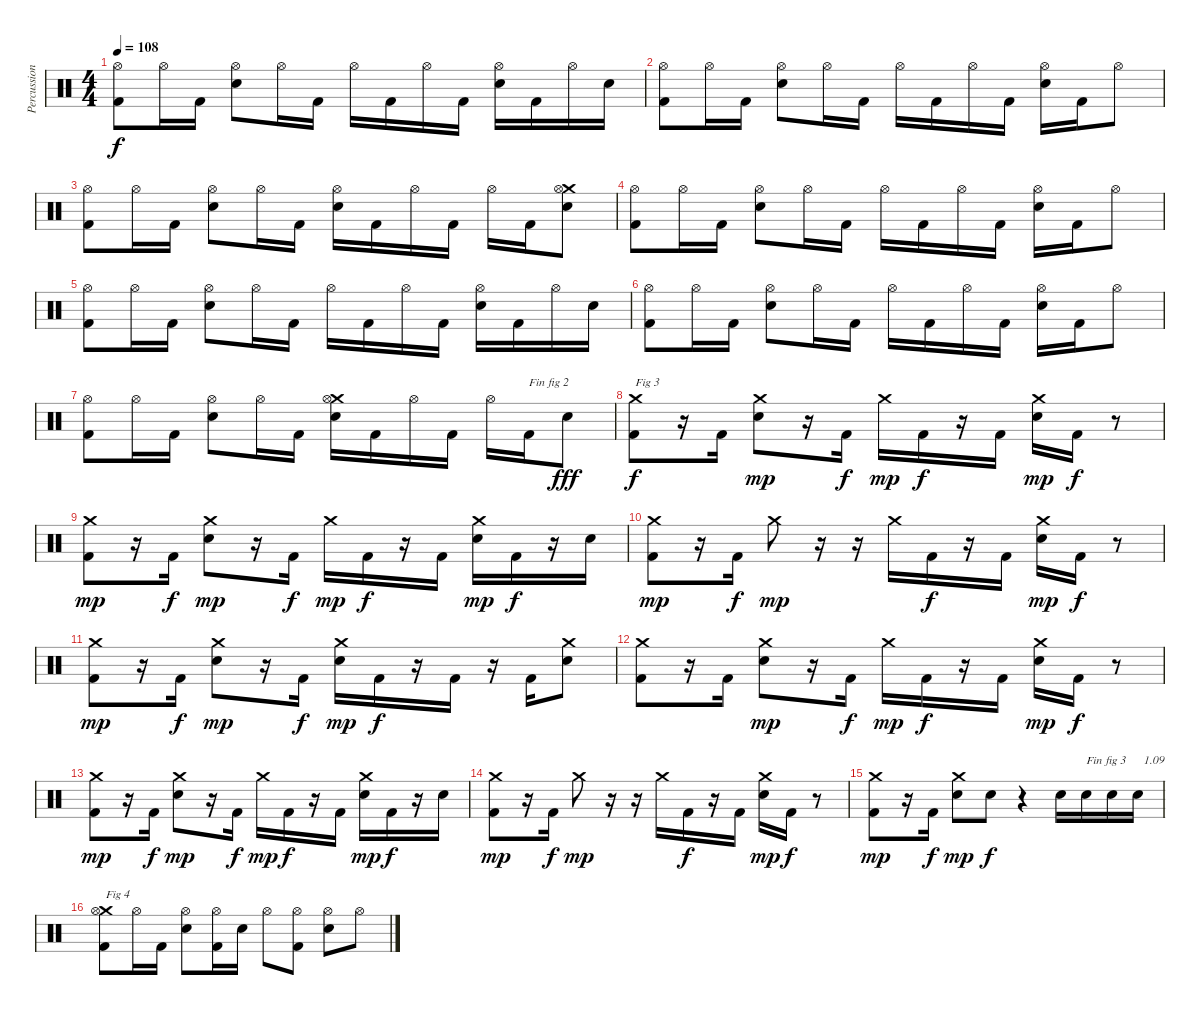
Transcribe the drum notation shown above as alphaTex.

\track ("Percussions" "Percussion") {instrument percussion}
\staff {score}
\articulation defaults
\ts (4 4)
\tempo 108
\clef neutral
\ks c
("Kick (hit) 2" "Hi-Hat (open)").8{dy f} "Hi-Hat (open)".16 "Kick (hit) 2".16 ("Electric Snare (hit)" "Hi-Hat (open)").8 "Hi-Hat (open)".16 "Kick (hit) 2".16 "Hi-Hat (open)".16 "Kick (hit) 2".16 "Hi-Hat (open)".16 "Kick (hit) 2".16 ("Electric Snare (hit)" "Hi-Hat (open)").16 "Kick (hit) 2".16 "Hi-Hat (open)".16 "Electric Snare (hit)".16 |
("Kick (hit) 2" "Hi-Hat (open)").8 "Hi-Hat (open)".16 "Kick (hit) 2".16 ("Electric Snare (hit)" "Hi-Hat (open)").8 "Hi-Hat (open)".16 "Kick (hit) 2".16 "Hi-Hat (open)".16 "Kick (hit) 2".16 "Hi-Hat (open)".16 "Kick (hit) 2".16 ("Electric Snare (hit)" "Hi-Hat (open)").16 "Kick (hit) 2".16 "Hi-Hat (open)".8 |
("Kick (hit) 2" "Hi-Hat (open)").8 "Hi-Hat (open)".16 "Kick (hit) 2".16 ("Electric Snare (hit)" "Hi-Hat (open)").8 "Hi-Hat (open)".16 "Kick (hit) 2".16 ("Electric Snare (hit)" "Hi-Hat (open)").16 "Kick (hit) 2".16 "Hi-Hat (open)".16 "Kick (hit) 2".16 "Hi-Hat (open)".16 "Kick (hit) 2".16 ("Electric Snare (hit)" "Crash medium (hit)" "Hi-Hat (open)").8 |
("Kick (hit) 2" "Hi-Hat (open)").8 "Hi-Hat (open)".16 "Kick (hit) 2".16 ("Electric Snare (hit)" "Hi-Hat (open)").8 "Hi-Hat (open)".16 "Kick (hit) 2".16 "Hi-Hat (open)".16 "Kick (hit) 2".16 "Hi-Hat (open)".16 "Kick (hit) 2".16 ("Electric Snare (hit)" "Hi-Hat (open)").16 "Kick (hit) 2".16 "Hi-Hat (open)".8 |
("Kick (hit) 2" "Hi-Hat (open)").8 "Hi-Hat (open)".16 "Kick (hit) 2".16 ("Electric Snare (hit)" "Hi-Hat (open)").8 "Hi-Hat (open)".16 "Kick (hit) 2".16 "Hi-Hat (open)".16 "Kick (hit) 2".16 "Hi-Hat (open)".16 "Kick (hit) 2".16 ("Electric Snare (hit)" "Hi-Hat (open)").16 "Kick (hit) 2".16 "Hi-Hat (open)".16 "Electric Snare (hit)".16 |
("Kick (hit) 2" "Hi-Hat (open)").8 "Hi-Hat (open)".16 "Kick (hit) 2".16 ("Electric Snare (hit)" "Hi-Hat (open)").8 "Hi-Hat (open)".16 "Kick (hit) 2".16 "Hi-Hat (open)".16 "Kick (hit) 2".16 "Hi-Hat (open)".16 "Kick (hit) 2".16 ("Electric Snare (hit)" "Hi-Hat (open)").16 "Kick (hit) 2".16 "Hi-Hat (open)".8 |
("Kick (hit) 2" "Hi-Hat (open)").8 "Hi-Hat (open)".16 "Kick (hit) 2".16 ("Electric Snare (hit)" "Hi-Hat (open)").8 "Hi-Hat (open)".16 "Kick (hit) 2".16 ("Electric Snare (hit)" "Crash medium (hit)" "Hi-Hat (open)").16 "Kick (hit) 2".16 "Hi-Hat (open)".16 "Kick (hit) 2".16 "Hi-Hat (open)".16 "Kick (hit) 2".16{txt "Fin fig 2"} "Electric Snare (hit)".8{dy fff} |
("Kick (hit) 2" "Crash medium (hit)").8{txt "Fig 3" dy f} r.16 "Kick (hit) 2".16 ("Electric Snare (hit)" "Crash medium (hit)").8{dy mp} r.16 "Kick (hit) 2".16{dy f} "Crash medium (hit)".16{dy mp} "Kick (hit) 2".16{dy f} r.16 "Kick (hit) 2".16 ("Electric Snare (hit)" "Crash medium (hit)").16{dy mp} "Kick (hit) 2".16{dy f} r.8 |
("Kick (hit) 2" "Crash medium (hit)").8{dy mp} r.16 "Kick (hit) 2".16{dy f} ("Electric Snare (hit)" "Crash medium (hit)").8{dy mp} r.16 "Kick (hit) 2".16{dy f} "Crash medium (hit)".16{dy mp} "Kick (hit) 2".16{dy f} r.16 "Kick (hit) 2".16 ("Electric Snare (hit)" "Crash medium (hit)").16{dy mp} "Kick (hit) 2".16{dy f} r.16 "Electric Snare (hit)".16 |
("Kick (hit) 2" "Crash medium (hit)").8{dy mp} r.16 "Kick (hit) 2".16{dy f} "Crash medium (hit)".8{dy mp} r.16 r.16 "Crash medium (hit)".16 "Kick (hit) 2".16{dy f} r.16 "Kick (hit) 2".16 ("Electric Snare (hit)" "Crash medium (hit)").16{dy mp} "Kick (hit) 2".16{dy f} r.8 |
("Kick (hit) 2" "Crash medium (hit)").8{dy mp} r.16 "Kick (hit) 2".16{dy f} ("Electric Snare (hit)" "Crash medium (hit)").8{dy mp} r.16 "Kick (hit) 2".16{dy f} ("Electric Snare (hit)" "Crash medium (hit)").16{dy mp} "Kick (hit) 2".16{dy f} r.16 "Kick (hit) 2".16 r.16 "Kick (hit) 2".16 ("Electric Snare (hit)" "Crash medium (hit)").8 |
("Kick (hit) 2" "Crash medium (hit)").8 r.16 "Kick (hit) 2".16 ("Electric Snare (hit)" "Crash medium (hit)").8{dy mp} r.16 "Kick (hit) 2".16{dy f} "Crash medium (hit)".16{dy mp} "Kick (hit) 2".16{dy f} r.16 "Kick (hit) 2".16 ("Electric Snare (hit)" "Crash medium (hit)").16{dy mp} "Kick (hit) 2".16{dy f} r.8 |
("Kick (hit) 2" "Crash medium (hit)").8{dy mp} r.16 "Kick (hit) 2".16{dy f} ("Electric Snare (hit)" "Crash medium (hit)").8{dy mp} r.16 "Kick (hit) 2".16{dy f} "Crash medium (hit)".16{dy mp} "Kick (hit) 2".16{dy f} r.16 "Kick (hit) 2".16 ("Electric Snare (hit)" "Crash medium (hit)").16{dy mp} "Kick (hit) 2".16{dy f} r.16 "Electric Snare (hit)".16 |
("Kick (hit) 2" "Crash medium (hit)").8{dy mp} r.16 "Kick (hit) 2".16{dy f} "Crash medium (hit)".8{dy mp} r.16 r.16 "Crash medium (hit)".16 "Kick (hit) 2".16{dy f} r.16 "Kick (hit) 2".16 ("Electric Snare (hit)" "Crash medium (hit)").16{dy mp} "Kick (hit) 2".16{dy f} r.8 |
("Kick (hit) 2" "Crash medium (hit)").8{dy mp} r.16 "Kick (hit) 2".16{dy f} ("Electric Snare (hit)" "Crash medium (hit)").8{dy mp} "Electric Snare (hit)".8{dy f} r.4 "Electric Snare (hit)".16 "Electric Snare (hit)".16{txt "Fin fig 3"} "Electric Snare (hit)".16 "Electric Snare (hit)".16{txt "  1.09"} |
("Kick (hit) 2" "Crash medium (hit)" "Hi-Hat (open)").8{txt "Fig 4"} "Hi-Hat (open)".16 "Kick (hit) 2".16 ("Electric Snare (hit)" "Hi-Hat (open)").8 ("Kick (hit) 2" "Hi-Hat (open)").16 "Electric Snare (hit)".16 "Hi-Hat (open)".8 ("Kick (hit) 2" "Hi-Hat (open)").8 ("Electric Snare (hit)" "Hi-Hat (open)").8 "Hi-Hat (open)".8
